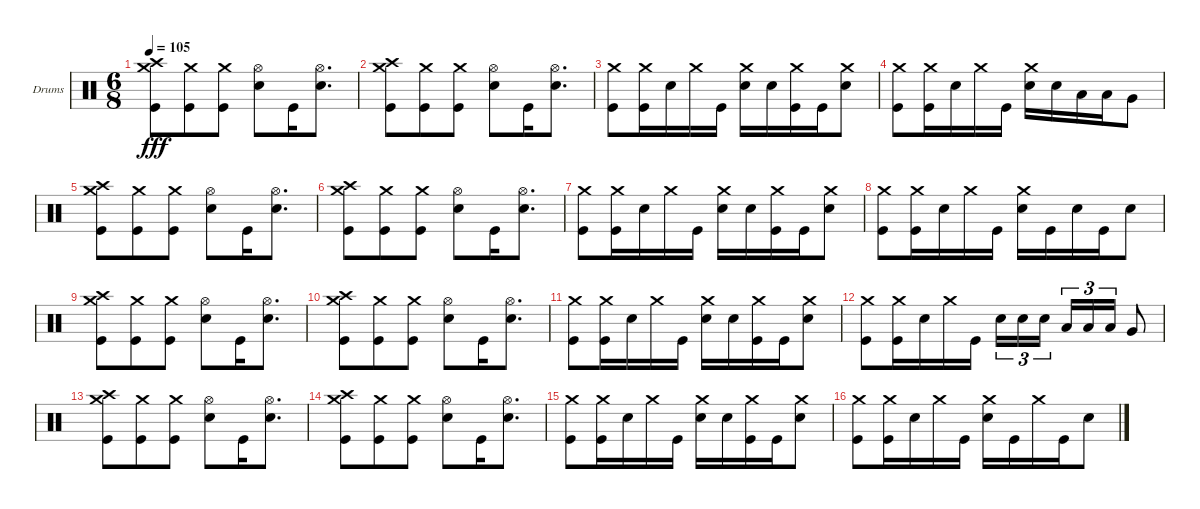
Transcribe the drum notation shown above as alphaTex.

\bracketExtendMode groupsimilarinstruments
\firstSystemTrackNameOrientation horizontal
\otherSystemsTrackNameOrientation horizontal
\track ("Andrew Forsman" "Drums") {instrument percussion}
\staff {score}
\articulation defaults
\ts (6 8)
\tempo 105
\clef neutral
\scale
0.333333
\ks c
("Kick (hit)" "Crash medium (hit)" "Crash high (hit)").8{dy fff} ("Kick (hit)" "Crash medium (hit)").8 ("Kick (hit)" "Crash medium (hit)").8 ("Snare (hit) 2" "Hi-Hat (open)").8 "Kick (hit)".16 ("Snare (hit) 2" "Hi-Hat (open)").8{d} |
\scale
0.333333 ("Kick (hit)" "Crash medium (hit)" "Crash high (hit)").8 ("Kick (hit)" "Crash medium (hit)").8 ("Kick (hit)" "Crash medium (hit)").8 ("Snare (hit) 2" "Hi-Hat (open)").8 "Kick (hit)".16 ("Snare (hit) 2" "Hi-Hat (open)").8{d} |
\scale
0.333333 ("Kick (hit)" "Crash medium (hit)").8 ("Kick (hit)" "Crash medium (hit)").16 "Snare (hit) 2".16 "Crash medium (hit)".16 "Kick (hit)".16 ("Snare (hit) 2" "Crash medium (hit)").16 "Snare (hit) 2".16 ("Kick (hit)" "Crash medium (hit)").16 "Kick (hit)".16 ("Snare (hit) 2" "Crash medium (hit)").8 |
\scale
0.333333 ("Kick (hit)" "Crash medium (hit)").8 ("Kick (hit)" "Crash medium (hit)").16 "Snare (hit) 2".16 "Crash medium (hit)".16 "Kick (hit)".16 ("Snare (hit) 2" "Crash medium (hit)").16 "Snare (hit) 2".16 "Low Tom (hit)".16 "Low Tom (hit)".16 "Very Low Tom (hit)".8 |
\scale
0.333333 ("Kick (hit)" "Crash medium (hit)" "Crash high (hit)").8 ("Kick (hit)" "Crash medium (hit)").8 ("Kick (hit)" "Crash medium (hit)").8 ("Snare (hit) 2" "Hi-Hat (open)").8 "Kick (hit)".16 ("Snare (hit) 2" "Hi-Hat (open)").8{d} |
\scale
0.333333 ("Kick (hit)" "Crash medium (hit)" "Crash high (hit)").8 ("Kick (hit)" "Crash medium (hit)").8 ("Kick (hit)" "Crash medium (hit)").8 ("Snare (hit) 2" "Hi-Hat (open)").8 "Kick (hit)".16 ("Snare (hit) 2" "Hi-Hat (open)").8{d} |
\scale
0.333333 ("Kick (hit)" "Crash medium (hit)").8 ("Kick (hit)" "Crash medium (hit)").16 "Snare (hit) 2".16 "Crash medium (hit)".16 "Kick (hit)".16 ("Snare (hit) 2" "Crash medium (hit)").16 "Snare (hit) 2".16 ("Kick (hit)" "Crash medium (hit)").16 "Kick (hit)".16 ("Snare (hit) 2" "Crash medium (hit)").8 |
\scale
0.333333 ("Kick (hit)" "Crash medium (hit)").8 ("Kick (hit)" "Crash medium (hit)").16 "Snare (hit) 2".16 "Crash medium (hit)".16 "Kick (hit)".16 ("Snare (hit) 2" "Crash medium (hit)").16 "Kick (hit)".16 "Snare (hit) 2".16 "Kick (hit)".16 "Snare (hit) 2".8 |
\scale
0.333333 ("Kick (hit)" "Crash medium (hit)" "Crash high (hit)").8 ("Kick (hit)" "Crash medium (hit)").8 ("Kick (hit)" "Crash medium (hit)").8 ("Snare (hit) 2" "Hi-Hat (open)").8 "Kick (hit)".16 ("Snare (hit) 2" "Hi-Hat (open)").8{d} |
\scale
0.333333 ("Kick (hit)" "Crash medium (hit)" "Crash high (hit)").8 ("Kick (hit)" "Crash medium (hit)").8 ("Kick (hit)" "Crash medium (hit)").8 ("Snare (hit) 2" "Hi-Hat (open)").8 "Kick (hit)".16 ("Snare (hit) 2" "Hi-Hat (open)").8{d} |
\scale
0.333333 ("Kick (hit)" "Crash medium (hit)").8 ("Kick (hit)" "Crash medium (hit)").16 "Snare (hit) 2".16 "Crash medium (hit)".16 "Kick (hit)".16 ("Snare (hit) 2" "Crash medium (hit)").16 "Snare (hit) 2".16 ("Kick (hit)" "Crash medium (hit)").16 "Kick (hit)".16 ("Snare (hit) 2" "Crash medium (hit)").8 |
\scale
0.333333 ("Kick (hit)" "Crash medium (hit)").8 ("Kick (hit)" "Crash medium (hit)").16 "Snare (hit) 2".16 "Crash medium (hit)".16 "Kick (hit)".16 "Snare (hit) 2".16{tu (3 2)} "Snare (hit) 2".16{tu (3 2)} "Snare (hit) 2".16{tu (3 2)} "Low Tom (hit)".16{tu (3 2)} "Low Tom (hit)".16{tu (3 2)} "Low Tom (hit)".16{tu (3 2)} "Very Low Tom (hit)".8 |
\scale
0.333333 ("Kick (hit)" "Crash medium (hit)" "Crash high (hit)").8 ("Kick (hit)" "Crash medium (hit)").8 ("Kick (hit)" "Crash medium (hit)").8 ("Snare (hit) 2" "Hi-Hat (open)").8 "Kick (hit)".16 ("Snare (hit) 2" "Hi-Hat (open)").8{d} |
\scale
0.333333 ("Kick (hit)" "Crash medium (hit)" "Crash high (hit)").8 ("Kick (hit)" "Crash medium (hit)").8 ("Kick (hit)" "Crash medium (hit)").8 ("Snare (hit) 2" "Hi-Hat (open)").8 "Kick (hit)".16 ("Snare (hit) 2" "Hi-Hat (open)").8{d} |
\scale
0.262911 ("Kick (hit)" "Crash medium (hit)").8 ("Kick (hit)" "Crash medium (hit)").16 "Snare (hit) 2".16 "Crash medium (hit)".16 "Kick (hit)".16 ("Snare (hit) 2" "Crash medium (hit)").16 "Snare (hit) 2".16 ("Kick (hit)" "Crash medium (hit)").16 "Kick (hit)".16 ("Snare (hit) 2" "Crash medium (hit)").8 |
\scale
0.262911 ("Kick (hit)" "Crash medium (hit)").8 ("Kick (hit)" "Crash medium (hit)").16 "Snare (hit) 2".16 "Crash medium (hit)".16 "Kick (hit)".16 ("Snare (hit) 2" "Crash medium (hit)").16 "Kick (hit)".16 "Crash medium (hit)".16 "Kick (hit)".16 "Snare (hit) 2".8
